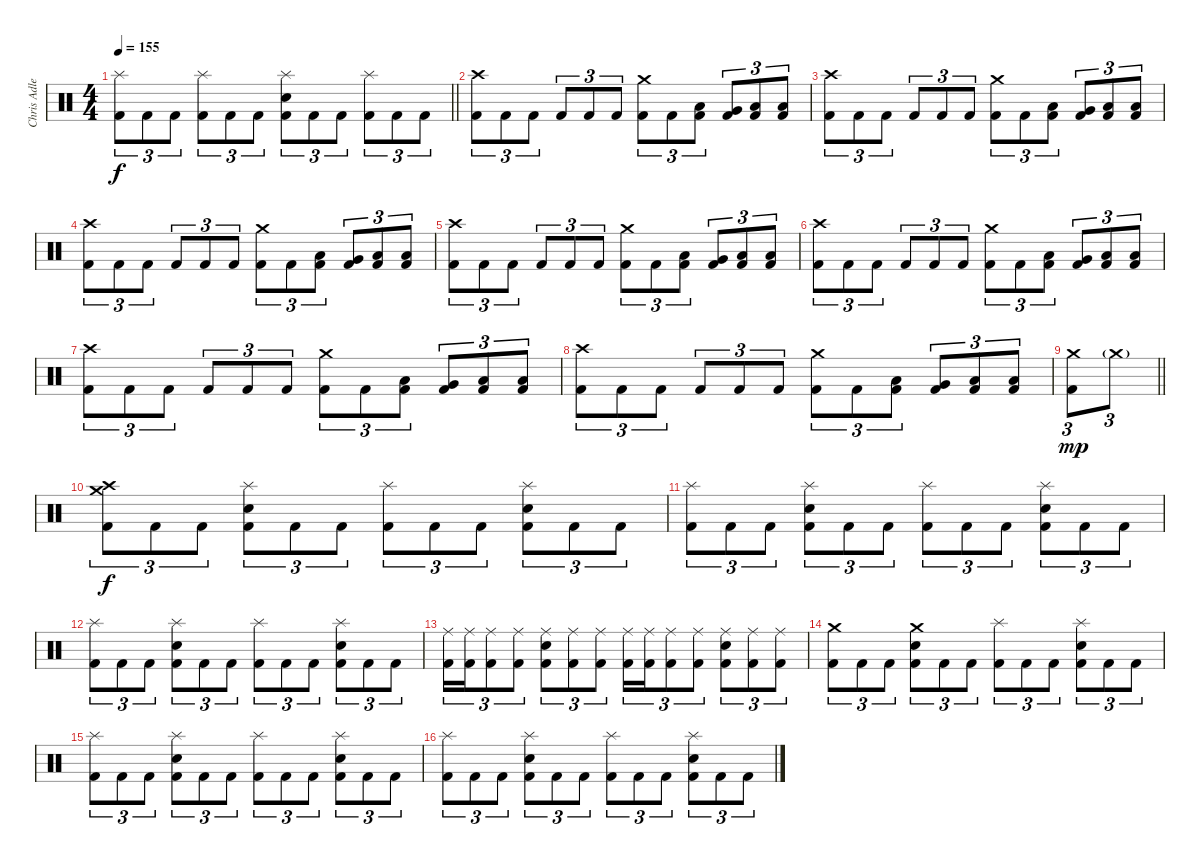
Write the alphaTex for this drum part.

\track ("Chris Adler" "Chris Adle") {instrument percussion}
\staff {score}
\articulation defaults
\ts (4 4)
\tempo 155
\clef neutral
\barLineRight lightlight
\ks c
("Splash (hit)" "Kick (hit) 2").8{tu (3 2) dy f} "Kick (hit) 2".8{tu (3 2)} "Kick (hit) 2".8{tu (3 2)} ("Splash (hit)" "Kick (hit) 2").8{tu (3 2)} "Kick (hit) 2".8{tu (3 2)} "Kick (hit) 2".8{tu (3 2)} ("Splash (hit)" "Snare (hit) 2" "Kick (hit) 2").8{tu (3 2)} "Kick (hit) 2".8{tu (3 2)} "Kick (hit) 2".8{tu (3 2)} ("Splash (hit)" "Kick (hit) 2").8{tu (3 2)} "Kick (hit) 2".8{tu (3 2)} "Kick (hit) 2".8{tu (3 2)} |
("Crash high (hit)" "Kick (hit) 2").8{tu (3 2)} "Kick (hit) 2".8{tu (3 2)} "Kick (hit) 2".8{tu (3 2)} "Kick (hit) 2".8{tu (3 2)} "Kick (hit) 2".8{tu (3 2)} "Kick (hit) 2".8{tu (3 2)} ("Crash medium (hit)" "Kick (hit) 2").8{tu (3 2)} "Kick (hit) 2".8{tu (3 2)} ("Low Tom (hit)" "Kick (hit) 2").8{tu (3 2)} ("Very Low Tom (hit)" "Kick (hit) 2").8{tu (3 2)} ("Low Floor Tom (hit)" "Kick (hit) 2").8{tu (3 2)} ("Low Floor Tom (hit)" "Kick (hit) 2").8{tu (3 2)} |
("Crash high (hit)" "Kick (hit) 2").8{tu (3 2)} "Kick (hit) 2".8{tu (3 2)} "Kick (hit) 2".8{tu (3 2)} "Kick (hit) 2".8{tu (3 2)} "Kick (hit) 2".8{tu (3 2)} "Kick (hit) 2".8{tu (3 2)} ("Crash medium (hit)" "Kick (hit) 2").8{tu (3 2)} "Kick (hit) 2".8{tu (3 2)} ("Low Tom (hit)" "Kick (hit) 2").8{tu (3 2)} ("Very Low Tom (hit)" "Kick (hit) 2").8{tu (3 2)} ("Low Floor Tom (hit)" "Kick (hit) 2").8{tu (3 2)} ("Low Floor Tom (hit)" "Kick (hit) 2").8{tu (3 2)} |
("Crash high (hit)" "Kick (hit) 2").8{tu (3 2)} "Kick (hit) 2".8{tu (3 2)} "Kick (hit) 2".8{tu (3 2)} "Kick (hit) 2".8{tu (3 2)} "Kick (hit) 2".8{tu (3 2)} "Kick (hit) 2".8{tu (3 2)} ("Crash medium (hit)" "Kick (hit) 2").8{tu (3 2)} "Kick (hit) 2".8{tu (3 2)} ("Low Tom (hit)" "Kick (hit) 2").8{tu (3 2)} ("Very Low Tom (hit)" "Kick (hit) 2").8{tu (3 2)} ("Low Floor Tom (hit)" "Kick (hit) 2").8{tu (3 2)} ("Low Floor Tom (hit)" "Kick (hit) 2").8{tu (3 2)} |
("Crash high (hit)" "Kick (hit) 2").8{tu (3 2)} "Kick (hit) 2".8{tu (3 2)} "Kick (hit) 2".8{tu (3 2)} "Kick (hit) 2".8{tu (3 2)} "Kick (hit) 2".8{tu (3 2)} "Kick (hit) 2".8{tu (3 2)} ("Crash medium (hit)" "Kick (hit) 2").8{tu (3 2)} "Kick (hit) 2".8{tu (3 2)} ("Low Tom (hit)" "Kick (hit) 2").8{tu (3 2)} ("Very Low Tom (hit)" "Kick (hit) 2").8{tu (3 2)} ("Low Floor Tom (hit)" "Kick (hit) 2").8{tu (3 2)} ("Low Floor Tom (hit)" "Kick (hit) 2").8{tu (3 2)} |
("Crash high (hit)" "Kick (hit) 2").8{tu (3 2)} "Kick (hit) 2".8{tu (3 2)} "Kick (hit) 2".8{tu (3 2)} "Kick (hit) 2".8{tu (3 2)} "Kick (hit) 2".8{tu (3 2)} "Kick (hit) 2".8{tu (3 2)} ("Crash medium (hit)" "Kick (hit) 2").8{tu (3 2)} "Kick (hit) 2".8{tu (3 2)} ("Low Tom (hit)" "Kick (hit) 2").8{tu (3 2)} ("Very Low Tom (hit)" "Kick (hit) 2").8{tu (3 2)} ("Low Floor Tom (hit)" "Kick (hit) 2").8{tu (3 2)} ("Low Floor Tom (hit)" "Kick (hit) 2").8{tu (3 2)} |
("Crash high (hit)" "Kick (hit) 2").8{tu (3 2)} "Kick (hit) 2".8{tu (3 2)} "Kick (hit) 2".8{tu (3 2)} "Kick (hit) 2".8{tu (3 2)} "Kick (hit) 2".8{tu (3 2)} "Kick (hit) 2".8{tu (3 2)} ("Crash medium (hit)" "Kick (hit) 2").8{tu (3 2)} "Kick (hit) 2".8{tu (3 2)} ("Low Tom (hit)" "Kick (hit) 2").8{tu (3 2)} ("Very Low Tom (hit)" "Kick (hit) 2").8{tu (3 2)} ("Low Floor Tom (hit)" "Kick (hit) 2").8{tu (3 2)} ("Low Floor Tom (hit)" "Kick (hit) 2").8{tu (3 2)} |
("Crash high (hit)" "Kick (hit) 2").8{tu (3 2)} "Kick (hit) 2".8{tu (3 2)} "Kick (hit) 2".8{tu (3 2)} "Kick (hit) 2".8{tu (3 2)} "Kick (hit) 2".8{tu (3 2)} "Kick (hit) 2".8{tu (3 2)} ("Crash medium (hit)" "Kick (hit) 2").8{tu (3 2)} "Kick (hit) 2".8{tu (3 2)} ("Low Tom (hit)" "Kick (hit) 2").8{tu (3 2)} ("Very Low Tom (hit)" "Kick (hit) 2").8{tu (3 2)} ("Low Floor Tom (hit)" "Kick (hit) 2").8{tu (3 2)} ("Low Floor Tom (hit)" "Kick (hit) 2").8{tu (3 2)} |
\barLineRight lightlight
("Crash medium (hit)" "Kick (hit) 2").8{tu (3 2) dy mp} "Crash medium (hit)"{g}.8{tu (3 2)} |
("Crash high (hit)" "Crash medium (hit)" "Kick (hit) 2").8{tu (3 2) dy f} "Kick (hit) 2".8{tu (3 2)} "Kick (hit) 2".8{tu (3 2)} ("Splash (hit)" "Snare (hit) 2" "Kick (hit) 2").8{tu (3 2)} "Kick (hit) 2".8{tu (3 2)} "Kick (hit) 2".8{tu (3 2)} ("Splash (hit)" "Kick (hit) 2").8{tu (3 2)} "Kick (hit) 2".8{tu (3 2)} "Kick (hit) 2".8{tu (3 2)} ("Splash (hit)" "Snare (hit) 2" "Kick (hit) 2").8{tu (3 2)} "Kick (hit) 2".8{tu (3 2)} "Kick (hit) 2".8{tu (3 2)} |
("Splash (hit)" "Kick (hit) 2").8{tu (3 2)} "Kick (hit) 2".8{tu (3 2)} "Kick (hit) 2".8{tu (3 2)} ("Splash (hit)" "Snare (hit) 2" "Kick (hit) 2").8{tu (3 2)} "Kick (hit) 2".8{tu (3 2)} "Kick (hit) 2".8{tu (3 2)} ("Splash (hit)" "Kick (hit) 2").8{tu (3 2)} "Kick (hit) 2".8{tu (3 2)} "Kick (hit) 2".8{tu (3 2)} ("Splash (hit)" "Snare (hit) 2" "Kick (hit) 2").8{tu (3 2)} "Kick (hit) 2".8{tu (3 2)} "Kick (hit) 2".8{tu (3 2)} |
("Splash (hit)" "Kick (hit) 2").8{tu (3 2)} "Kick (hit) 2".8{tu (3 2)} "Kick (hit) 2".8{tu (3 2)} ("Splash (hit)" "Snare (hit) 2" "Kick (hit) 2").8{tu (3 2)} "Kick (hit) 2".8{tu (3 2)} "Kick (hit) 2".8{tu (3 2)} ("Splash (hit)" "Kick (hit) 2").8{tu (3 2)} "Kick (hit) 2".8{tu (3 2)} "Kick (hit) 2".8{tu (3 2)} ("Splash (hit)" "Snare (hit) 2" "Kick (hit) 2").8{tu (3 2)} "Kick (hit) 2".8{tu (3 2)} "Kick (hit) 2".8{tu (3 2)} |
("Ride (middle)" "Kick (hit) 2").16{tu (3 2)} ("Ride (middle)" "Kick (hit) 2").16{tu (3 2)} ("Ride (middle)" "Kick (hit) 2").8{tu (3 2)} ("Ride (middle)" "Kick (hit) 2").8{tu (3 2)} ("Ride (middle)" "Snare (hit) 2" "Kick (hit) 2").8{tu (3 2)} ("Ride (middle)" "Kick (hit) 2").8{tu (3 2)} ("Ride (middle)" "Kick (hit) 2").8{tu (3 2)} ("Ride (middle)" "Kick (hit) 2").16{tu (3 2)} ("Ride (middle)" "Kick (hit) 2").16{tu (3 2)} ("Ride (middle)" "Kick (hit) 2").8{tu (3 2)} ("Ride (middle)" "Kick (hit) 2").8{tu (3 2)} ("Ride (middle)" "Snare (hit) 2" "Kick (hit) 2").8{tu (3 2)} ("Ride (middle)" "Kick (hit) 2").8{tu (3 2)} ("Ride (middle)" "Kick (hit) 2").8{tu (3 2)} |
("Crash medium (hit)" "Kick (hit) 2").8{tu (3 2)} "Kick (hit) 2".8{tu (3 2)} "Kick (hit) 2".8{tu (3 2)} ("Crash medium (hit)" "Snare (hit) 2" "Kick (hit) 2").8{tu (3 2)} "Kick (hit) 2".8{tu (3 2)} "Kick (hit) 2".8{tu (3 2)} ("Splash (hit)" "Kick (hit) 2").8{tu (3 2)} "Kick (hit) 2".8{tu (3 2)} "Kick (hit) 2".8{tu (3 2)} ("Splash (hit)" "Snare (hit) 2" "Kick (hit) 2").8{tu (3 2)} "Kick (hit) 2".8{tu (3 2)} "Kick (hit) 2".8{tu (3 2)} |
("Splash (hit)" "Kick (hit) 2").8{tu (3 2)} "Kick (hit) 2".8{tu (3 2)} "Kick (hit) 2".8{tu (3 2)} ("Splash (hit)" "Snare (hit) 2" "Kick (hit) 2").8{tu (3 2)} "Kick (hit) 2".8{tu (3 2)} "Kick (hit) 2".8{tu (3 2)} ("Splash (hit)" "Kick (hit) 2").8{tu (3 2)} "Kick (hit) 2".8{tu (3 2)} "Kick (hit) 2".8{tu (3 2)} ("Splash (hit)" "Snare (hit) 2" "Kick (hit) 2").8{tu (3 2)} "Kick (hit) 2".8{tu (3 2)} "Kick (hit) 2".8{tu (3 2)} |
("Splash (hit)" "Kick (hit) 2").8{tu (3 2)} "Kick (hit) 2".8{tu (3 2)} "Kick (hit) 2".8{tu (3 2)} ("Splash (hit)" "Snare (hit) 2" "Kick (hit) 2").8{tu (3 2)} "Kick (hit) 2".8{tu (3 2)} "Kick (hit) 2".8{tu (3 2)} ("Splash (hit)" "Kick (hit) 2").8{tu (3 2)} "Kick (hit) 2".8{tu (3 2)} "Kick (hit) 2".8{tu (3 2)} ("Splash (hit)" "Snare (hit) 2" "Kick (hit) 2").8{tu (3 2)} "Kick (hit) 2".8{tu (3 2)} "Kick (hit) 2".8{tu (3 2)}
